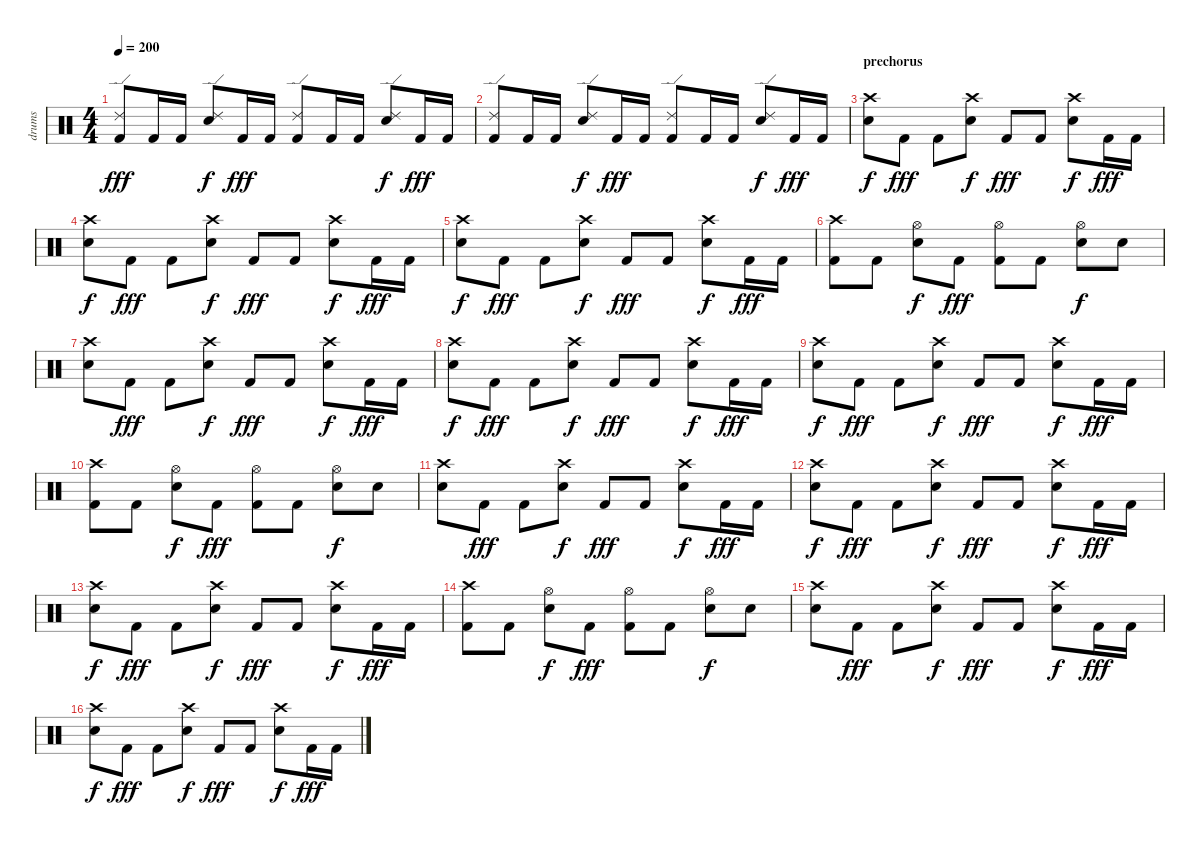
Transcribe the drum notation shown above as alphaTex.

\track ("drums" "drums") {instrument percussion}
\staff {score}
\articulation defaults
\ts (4 4)
\tempo 200
\clef neutral
\ks c
("Ride (edge) 2" "Kick (hit) 2").8{dy fff} "Kick (hit) 2".16 "Kick (hit) 2".16 ("Ride (edge) 2" "Snare (hit) 2").8{dy f} "Kick (hit) 2".16{dy fff} "Kick (hit) 2".16 ("Ride (edge) 2" "Kick (hit) 2").8 "Kick (hit) 2".16 "Kick (hit) 2".16 ("Ride (edge) 2" "Snare (hit) 2").8{dy f} "Kick (hit) 2".16{dy fff} "Kick (hit) 2".16 |
("Ride (edge) 2" "Kick (hit) 2").8 "Kick (hit) 2".16 "Kick (hit) 2".16 ("Ride (edge) 2" "Snare (hit) 2").8{dy f} "Kick (hit) 2".16{dy fff} "Kick (hit) 2".16 ("Ride (edge) 2" "Kick (hit) 2").8 "Kick (hit) 2".16 "Kick (hit) 2".16 ("Ride (edge) 2" "Snare (hit) 2").8{dy f} "Kick (hit) 2".16{dy fff} "Kick (hit) 2".16 |
\section ("" "prechorus")
("Crash high (hit)" "Snare (hit) 2").8{dy f} "Kick (hit) 2".8{dy fff} "Kick (hit) 2".8 ("Crash high (hit)" "Snare (hit) 2").8{dy f} "Kick (hit) 2".8{dy fff} "Kick (hit) 2".8 ("Crash high (hit)" "Snare (hit) 2").8{dy f} "Kick (hit) 2".16{dy fff} "Kick (hit) 2".16 |
("Crash high (hit)" "Snare (hit) 2").8{dy f} "Kick (hit) 2".8{dy fff} "Kick (hit) 2".8 ("Crash high (hit)" "Snare (hit) 2").8{dy f} "Kick (hit) 2".8{dy fff} "Kick (hit) 2".8 ("Crash high (hit)" "Snare (hit) 2").8{dy f} "Kick (hit) 2".16{dy fff} "Kick (hit) 2".16 |
("Crash high (hit)" "Snare (hit) 2").8{dy f} "Kick (hit) 2".8{dy fff} "Kick (hit) 2".8 ("Crash high (hit)" "Snare (hit) 2").8{dy f} "Kick (hit) 2".8{dy fff} "Kick (hit) 2".8 ("Crash high (hit)" "Snare (hit) 2").8{dy f} "Kick (hit) 2".16{dy fff} "Kick (hit) 2".16 |
("Crash high (hit)" "Kick (hit) 2").8 "Kick (hit) 2".8 ("Hi-Hat (open)" "Snare (hit) 2").8{dy f} "Kick (hit) 2".8{dy fff} ("Hi-Hat (open)" "Kick (hit) 2").8 "Kick (hit) 2".8 ("Hi-Hat (open)" "Snare (hit) 2").8{dy f} "Snare (hit) 2".8 |
("Crash high (hit)" "Snare (hit) 2").8 "Kick (hit) 2".8{dy fff} "Kick (hit) 2".8 ("Crash high (hit)" "Snare (hit) 2").8{dy f} "Kick (hit) 2".8{dy fff} "Kick (hit) 2".8 ("Crash high (hit)" "Snare (hit) 2").8{dy f} "Kick (hit) 2".16{dy fff} "Kick (hit) 2".16 |
("Crash high (hit)" "Snare (hit) 2").8{dy f} "Kick (hit) 2".8{dy fff} "Kick (hit) 2".8 ("Crash high (hit)" "Snare (hit) 2").8{dy f} "Kick (hit) 2".8{dy fff} "Kick (hit) 2".8 ("Crash high (hit)" "Snare (hit) 2").8{dy f} "Kick (hit) 2".16{dy fff} "Kick (hit) 2".16 |
("Crash high (hit)" "Snare (hit) 2").8{dy f} "Kick (hit) 2".8{dy fff} "Kick (hit) 2".8 ("Crash high (hit)" "Snare (hit) 2").8{dy f} "Kick (hit) 2".8{dy fff} "Kick (hit) 2".8 ("Crash high (hit)" "Snare (hit) 2").8{dy f} "Kick (hit) 2".16{dy fff} "Kick (hit) 2".16 |
("Crash high (hit)" "Kick (hit) 2").8 "Kick (hit) 2".8 ("Hi-Hat (open)" "Snare (hit) 2").8{dy f} "Kick (hit) 2".8{dy fff} ("Hi-Hat (open)" "Kick (hit) 2").8 "Kick (hit) 2".8 ("Hi-Hat (open)" "Snare (hit) 2").8{dy f} "Snare (hit) 2".8 |
("Crash high (hit)" "Snare (hit) 2").8 "Kick (hit) 2".8{dy fff} "Kick (hit) 2".8 ("Crash high (hit)" "Snare (hit) 2").8{dy f} "Kick (hit) 2".8{dy fff} "Kick (hit) 2".8 ("Crash high (hit)" "Snare (hit) 2").8{dy f} "Kick (hit) 2".16{dy fff} "Kick (hit) 2".16 |
("Crash high (hit)" "Snare (hit) 2").8{dy f} "Kick (hit) 2".8{dy fff} "Kick (hit) 2".8 ("Crash high (hit)" "Snare (hit) 2").8{dy f} "Kick (hit) 2".8{dy fff} "Kick (hit) 2".8 ("Crash high (hit)" "Snare (hit) 2").8{dy f} "Kick (hit) 2".16{dy fff} "Kick (hit) 2".16 |
("Crash high (hit)" "Snare (hit) 2").8{dy f} "Kick (hit) 2".8{dy fff} "Kick (hit) 2".8 ("Crash high (hit)" "Snare (hit) 2").8{dy f} "Kick (hit) 2".8{dy fff} "Kick (hit) 2".8 ("Crash high (hit)" "Snare (hit) 2").8{dy f} "Kick (hit) 2".16{dy fff} "Kick (hit) 2".16 |
("Crash high (hit)" "Kick (hit) 2").8 "Kick (hit) 2".8 ("Hi-Hat (open)" "Snare (hit) 2").8{dy f} "Kick (hit) 2".8{dy fff} ("Hi-Hat (open)" "Kick (hit) 2").8 "Kick (hit) 2".8 ("Hi-Hat (open)" "Snare (hit) 2").8{dy f} "Snare (hit) 2".8 |
("Crash high (hit)" "Snare (hit) 2").8 "Kick (hit) 2".8{dy fff} "Kick (hit) 2".8 ("Crash high (hit)" "Snare (hit) 2").8{dy f} "Kick (hit) 2".8{dy fff} "Kick (hit) 2".8 ("Crash high (hit)" "Snare (hit) 2").8{dy f} "Kick (hit) 2".16{dy fff} "Kick (hit) 2".16 |
("Crash high (hit)" "Snare (hit) 2").8{dy f} "Kick (hit) 2".8{dy fff} "Kick (hit) 2".8 ("Crash high (hit)" "Snare (hit) 2").8{dy f} "Kick (hit) 2".8{dy fff} "Kick (hit) 2".8 ("Crash high (hit)" "Snare (hit) 2").8{dy f} "Kick (hit) 2".16{dy fff} "Kick (hit) 2".16
